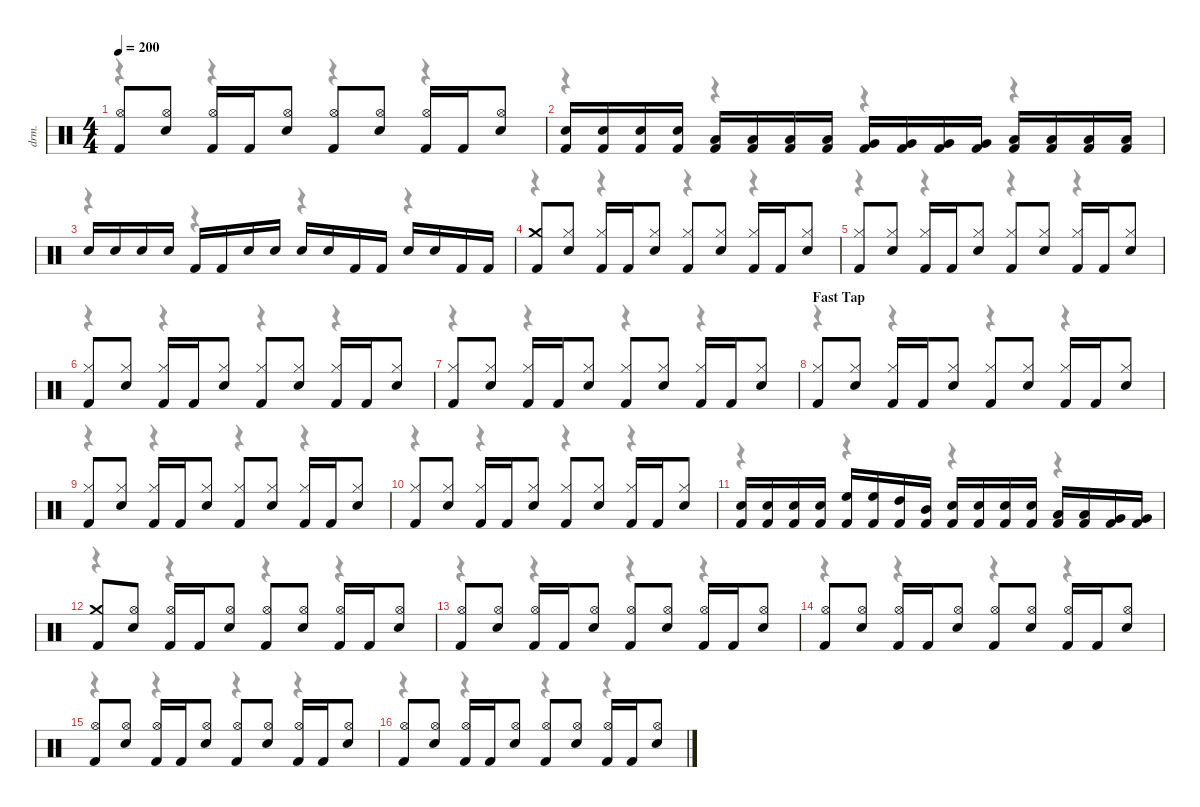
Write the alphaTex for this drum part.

\hideDynamics
\bracketExtendMode nobrackets
\otherSystemsTrackNameOrientation horizontal
\track ("Drums" "drm.") {instrument percussion}
\staff {score}
\articulation defaults
\voice
\ts (4 4)
\scale
0.980336
\tempo 200
\accidentals auto
\clef neutral
\ottava regular
\simile none
\ks c
("Kick (hit) 2" "Hi-Hat (open)").8{dy f} ("Snare (hit) 2" "Hi-Hat (open)").8 ("Kick (hit) 2" "Hi-Hat (open)").16 "Kick (hit) 2".16 ("Snare (hit) 2" "Hi-Hat (open)").8 ("Kick (hit) 2" "Hi-Hat (open)").8 ("Snare (hit) 2" "Hi-Hat (open)").8 ("Kick (hit) 2" "Hi-Hat (open)").16 "Kick (hit) 2".16 ("Snare (hit) 2" "Hi-Hat (open)").8 |
\scale
0.990143 ("Kick (hit) 2" "Snare (hit) 2").16 ("Kick (hit) 2" "Snare (hit) 2").16 ("Kick (hit) 2" "Snare (hit) 2").16 ("Kick (hit) 2" "Snare (hit) 2").16 ("Kick (hit) 2" "Low Tom (hit)").16 ("Kick (hit) 2" "Low Tom (hit)").16 ("Kick (hit) 2" "Low Tom (hit)").16 ("Kick (hit) 2" "Low Tom (hit)").16 ("Kick (hit) 2" "Very Low Tom (hit)").16 ("Kick (hit) 2" "Very Low Tom (hit)").16 ("Kick (hit) 2" "Very Low Tom (hit)").16 ("Kick (hit) 2" "Very Low Tom (hit)").16 ("Kick (hit) 2" "Low Floor Tom (hit)").16 ("Kick (hit) 2" "Low Floor Tom (hit)").16 ("Kick (hit) 2" "Low Floor Tom (hit)").16 ("Kick (hit) 2" "Low Floor Tom (hit)").16 |
\scale
1.04918 "Snare (hit) 2".16 "Snare (hit) 2".16 "Snare (hit) 2".16 "Snare (hit) 2".16 "Kick (hit) 2".16 "Kick (hit) 2".16 "Snare (hit) 2".16 "Snare (hit) 2".16 "Snare (hit) 2".16 "Snare (hit) 2".16 "Kick (hit) 2".16 "Kick (hit) 2".16 "Snare (hit) 2".16 "Snare (hit) 2".16 "Kick (hit) 2".16 "Kick (hit) 2".16 |
\scale
0.980336 ("Kick (hit) 2" "Crash medium (hit)").8 ("Snare (hit) 2" "Hi-Hat (closed)").8 ("Kick (hit) 2" "Hi-Hat (closed)").16 "Kick (hit) 2".16 ("Snare (hit) 2" "Hi-Hat (closed)").8 ("Kick (hit) 2" "Hi-Hat (closed)").8 ("Snare (hit) 2" "Hi-Hat (closed)").8 ("Kick (hit) 2" "Hi-Hat (closed)").16 "Kick (hit) 2".16 ("Snare (hit) 2" "Hi-Hat (closed)").8 |
\scale
0.980336 ("Kick (hit) 2" "Hi-Hat (closed)").8 ("Snare (hit) 2" "Hi-Hat (closed)").8 ("Kick (hit) 2" "Hi-Hat (closed)").16 "Kick (hit) 2".16 ("Snare (hit) 2" "Hi-Hat (closed)").8 ("Kick (hit) 2" "Hi-Hat (closed)").8 ("Snare (hit) 2" "Hi-Hat (closed)").8 ("Kick (hit) 2" "Hi-Hat (closed)").16 "Kick (hit) 2".16 ("Snare (hit) 2" "Hi-Hat (closed)").8 |
\scale
0.990143 ("Kick (hit) 2" "Hi-Hat (closed)").8 ("Snare (hit) 2" "Hi-Hat (closed)").8 ("Kick (hit) 2" "Hi-Hat (closed)").16 "Kick (hit) 2".16 ("Snare (hit) 2" "Hi-Hat (closed)").8 ("Kick (hit) 2" "Hi-Hat (closed)").8 ("Snare (hit) 2" "Hi-Hat (closed)").8 ("Kick (hit) 2" "Hi-Hat (closed)").16 "Kick (hit) 2".16 ("Snare (hit) 2" "Hi-Hat (closed)").8 |
\scale
1.05781 ("Kick (hit) 2" "Hi-Hat (closed)").8 ("Snare (hit) 2" "Hi-Hat (closed)").8 ("Kick (hit) 2" "Hi-Hat (closed)").16 "Kick (hit) 2".16 ("Snare (hit) 2" "Hi-Hat (closed)").8 ("Kick (hit) 2" "Hi-Hat (closed)").8 ("Snare (hit) 2" "Hi-Hat (closed)").8 ("Kick (hit) 2" "Hi-Hat (closed)").16 "Kick (hit) 2".16 ("Snare (hit) 2" "Hi-Hat (closed)").8 |
\section ("" "Fast Tap")
\scale
0.980728 ("Kick (hit) 2" "Hi-Hat (closed)").8 ("Snare (hit) 2" "Hi-Hat (closed)").8 ("Kick (hit) 2" "Hi-Hat (closed)").16 "Kick (hit) 2".16 ("Snare (hit) 2" "Hi-Hat (closed)").8 ("Kick (hit) 2" "Hi-Hat (closed)").8 ("Snare (hit) 2" "Hi-Hat (closed)").8 ("Kick (hit) 2" "Hi-Hat (closed)").16 "Kick (hit) 2".16 ("Snare (hit) 2" "Hi-Hat (closed)").8 |
\scale
0.980728 ("Kick (hit) 2" "Hi-Hat (closed)").8 ("Snare (hit) 2" "Hi-Hat (closed)").8 ("Kick (hit) 2" "Hi-Hat (closed)").16 "Kick (hit) 2".16 ("Snare (hit) 2" "Hi-Hat (closed)").8 ("Kick (hit) 2" "Hi-Hat (closed)").8 ("Snare (hit) 2" "Hi-Hat (closed)").8 ("Kick (hit) 2" "Hi-Hat (closed)").16 "Kick (hit) 2".16 ("Snare (hit) 2" "Hi-Hat (closed)").8 |
\scale
0.980728 ("Kick (hit) 2" "Hi-Hat (closed)").8 ("Snare (hit) 2" "Hi-Hat (closed)").8 ("Kick (hit) 2" "Hi-Hat (closed)").16 "Kick (hit) 2".16 ("Snare (hit) 2" "Hi-Hat (closed)").8 ("Kick (hit) 2" "Hi-Hat (closed)").8 ("Snare (hit) 2" "Hi-Hat (closed)").8 ("Kick (hit) 2" "Hi-Hat (closed)").16 "Kick (hit) 2".16 ("Snare (hit) 2" "Hi-Hat (closed)").8 |
\scale
1.07709 ("Kick (hit) 2" "Snare (hit) 2").16 ("Kick (hit) 2" "Snare (hit) 2").16 ("Kick (hit) 2" "Snare (hit) 2").16 ("Kick (hit) 2" "Snare (hit) 2").16 ("Kick (hit) 2" "High Floor Tom (hit)").16 ("Kick (hit) 2" "High Floor Tom (hit)").16 ("Kick (hit) 2" "High Tom (hit)").16 ("Kick (hit) 2" "Mid Tom (hit)").16 ("Kick (hit) 2" "Snare (hit) 2").16 ("Kick (hit) 2" "Snare (hit) 2").16 ("Kick (hit) 2" "Snare (hit) 2").16 ("Kick (hit) 2" "Snare (hit) 2").16 ("Kick (hit) 2" "Low Tom (hit)").16 ("Kick (hit) 2" "Low Tom (hit)").16 ("Kick (hit) 2" "Very Low Tom (hit)").16 ("Kick (hit) 2" "Very Low Tom (hit)").16 |
\section ("" "")
\scale
0.980728 ("Kick (hit) 2" "Crash medium (hit)").8 ("Snare (hit) 2" "Hi-Hat (open)").8 ("Kick (hit) 2" "Hi-Hat (open)").16 "Kick (hit) 2".16 ("Snare (hit) 2" "Hi-Hat (open)").8 ("Kick (hit) 2" "Hi-Hat (open)").8 ("Snare (hit) 2" "Hi-Hat (open)").8 ("Kick (hit) 2" "Hi-Hat (open)").16 "Kick (hit) 2".16 ("Snare (hit) 2" "Hi-Hat (open)").8 |
\scale
0.980728 ("Kick (hit) 2" "Hi-Hat (open)").8 ("Snare (hit) 2" "Hi-Hat (open)").8 ("Kick (hit) 2" "Hi-Hat (open)").16 "Kick (hit) 2".16 ("Snare (hit) 2" "Hi-Hat (open)").8 ("Kick (hit) 2" "Hi-Hat (open)").8 ("Snare (hit) 2" "Hi-Hat (open)").8 ("Kick (hit) 2" "Hi-Hat (open)").16 "Kick (hit) 2".16 ("Snare (hit) 2" "Hi-Hat (open)").8 |
\scale
0.980728 ("Kick (hit) 2" "Hi-Hat (open)").8 ("Snare (hit) 2" "Hi-Hat (open)").8 ("Kick (hit) 2" "Hi-Hat (open)").16 "Kick (hit) 2".16 ("Snare (hit) 2" "Hi-Hat (open)").8 ("Kick (hit) 2" "Hi-Hat (open)").8 ("Snare (hit) 2" "Hi-Hat (open)").8 ("Kick (hit) 2" "Hi-Hat (open)").16 "Kick (hit) 2".16 ("Snare (hit) 2" "Hi-Hat (open)").8 |
\scale
0.980728 ("Kick (hit) 2" "Hi-Hat (open)").8 ("Snare (hit) 2" "Hi-Hat (open)").8 ("Kick (hit) 2" "Hi-Hat (open)").16 "Kick (hit) 2".16 ("Snare (hit) 2" "Hi-Hat (open)").8 ("Kick (hit) 2" "Hi-Hat (open)").8 ("Snare (hit) 2" "Hi-Hat (open)").8 ("Kick (hit) 2" "Hi-Hat (open)").16 "Kick (hit) 2".16 ("Snare (hit) 2" "Hi-Hat (open)").8 |
\scale
1.08361 ("Kick (hit) 2" "Hi-Hat (open)").8 ("Snare (hit) 2" "Hi-Hat (open)").8 ("Kick (hit) 2" "Hi-Hat (open)").16 "Kick (hit) 2".16 ("Snare (hit) 2" "Hi-Hat (open)").8 ("Kick (hit) 2" "Hi-Hat (open)").8 ("Snare (hit) 2" "Hi-Hat (open)").8 ("Kick (hit) 2" "Hi-Hat (open)").16 "Kick (hit) 2".16 ("Snare (hit) 2" "Hi-Hat (open)").8
\voice
\clef neutral
\ottava regular
\simile none
\ks c
r.4{dy mf} r.4 r.4 r.4 |
r.4 r.4 r.4 r.4 |
r.4 r.4 r.4 r.4 |
r.4 r.4 r.4 r.4 |
r.4 r.4 r.4 r.4 |
r.4 r.4 r.4 r.4 |
r.4 r.4 r.4 r.4 |
r.4 r.4 r.4 r.4 |
r.4 r.4 r.4 r.4 |
r.4 r.4 r.4 r.4 |
r.4 r.4 r.4 r.4 |
r.4 r.4 r.4 r.4 |
r.4 r.4 r.4 r.4 |
r.4 r.4 r.4 r.4 |
r.4 r.4 r.4 r.4 |
r.4 r.4 r.4 r.4
